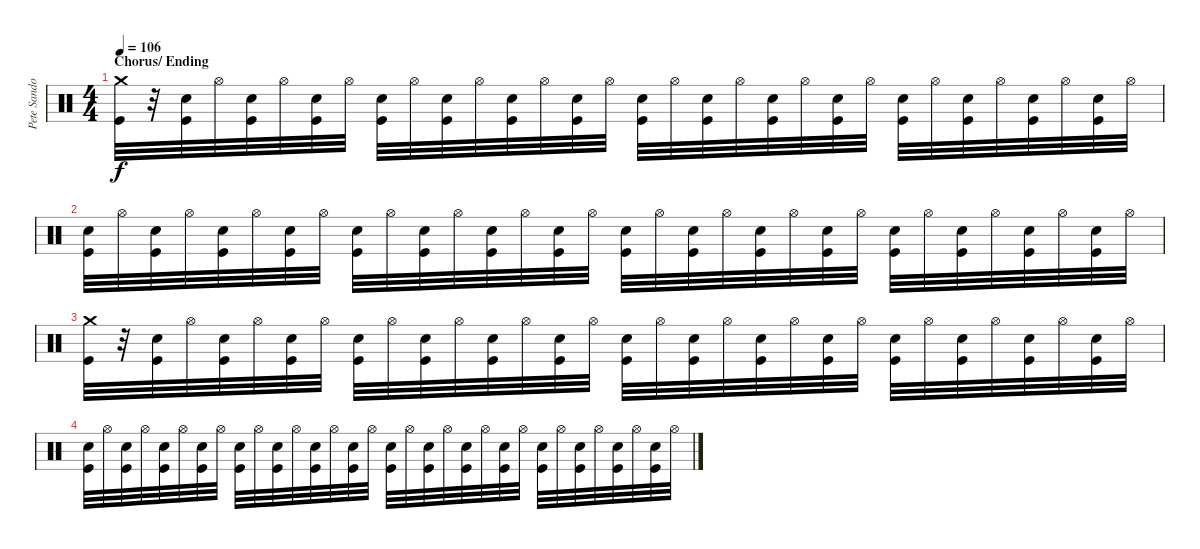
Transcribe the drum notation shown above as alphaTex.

\track ("Pete Sandoval" "Pete Sando") {instrument percussion}
\staff {score}
\articulation defaults
\ts (4 4)
\section ("" "Chorus/ Ending")
\tempo 106
\clef neutral
\ks c
("Crash medium (hit)" "Kick (hit)").32{dy f} r.32 ("Electric Snare (hit)" "Kick (hit)").32 "Hi-Hat (open)".32 ("Electric Snare (hit)" "Kick (hit)").32 "Hi-Hat (open)".32 ("Electric Snare (hit)" "Kick (hit)").32 "Hi-Hat (open)".32 ("Electric Snare (hit)" "Kick (hit)").32 "Hi-Hat (open)".32 ("Electric Snare (hit)" "Kick (hit)").32 "Hi-Hat (open)".32 ("Electric Snare (hit)" "Kick (hit)").32 "Hi-Hat (open)".32 ("Electric Snare (hit)" "Kick (hit)").32 "Hi-Hat (open)".32 ("Electric Snare (hit)" "Kick (hit)").32 "Hi-Hat (open)".32 ("Electric Snare (hit)" "Kick (hit)").32 "Hi-Hat (open)".32 ("Electric Snare (hit)" "Kick (hit)").32 "Hi-Hat (open)".32 ("Electric Snare (hit)" "Kick (hit)").32 "Hi-Hat (open)".32 ("Electric Snare (hit)" "Kick (hit)").32 "Hi-Hat (open)".32 ("Electric Snare (hit)" "Kick (hit)").32 "Hi-Hat (open)".32 ("Electric Snare (hit)" "Kick (hit)").32 "Hi-Hat (open)".32 ("Electric Snare (hit)" "Kick (hit)").32 "Hi-Hat (open)".32 |
("Electric Snare (hit)" "Kick (hit)").32 "Hi-Hat (open)".32 ("Electric Snare (hit)" "Kick (hit)").32 "Hi-Hat (open)".32 ("Electric Snare (hit)" "Kick (hit)").32 "Hi-Hat (open)".32 ("Electric Snare (hit)" "Kick (hit)").32 "Hi-Hat (open)".32 ("Electric Snare (hit)" "Kick (hit)").32 "Hi-Hat (open)".32 ("Electric Snare (hit)" "Kick (hit)").32 "Hi-Hat (open)".32 ("Electric Snare (hit)" "Kick (hit)").32 "Hi-Hat (open)".32 ("Electric Snare (hit)" "Kick (hit)").32 "Hi-Hat (open)".32 ("Electric Snare (hit)" "Kick (hit)").32 "Hi-Hat (open)".32 ("Electric Snare (hit)" "Kick (hit)").32 "Hi-Hat (open)".32 ("Electric Snare (hit)" "Kick (hit)").32 "Hi-Hat (open)".32 ("Electric Snare (hit)" "Kick (hit)").32 "Hi-Hat (open)".32 ("Electric Snare (hit)" "Kick (hit)").32 "Hi-Hat (open)".32 ("Electric Snare (hit)" "Kick (hit)").32 "Hi-Hat (open)".32 ("Electric Snare (hit)" "Kick (hit)").32 "Hi-Hat (open)".32 ("Electric Snare (hit)" "Kick (hit)").32 "Hi-Hat (open)".32 |
("Crash medium (hit)" "Kick (hit)").32 r.32 ("Electric Snare (hit)" "Kick (hit)").32 "Hi-Hat (open)".32 ("Electric Snare (hit)" "Kick (hit)").32 "Hi-Hat (open)".32 ("Electric Snare (hit)" "Kick (hit)").32 "Hi-Hat (open)".32 ("Electric Snare (hit)" "Kick (hit)").32 "Hi-Hat (open)".32 ("Electric Snare (hit)" "Kick (hit)").32 "Hi-Hat (open)".32 ("Electric Snare (hit)" "Kick (hit)").32 "Hi-Hat (open)".32 ("Electric Snare (hit)" "Kick (hit)").32 "Hi-Hat (open)".32 ("Electric Snare (hit)" "Kick (hit)").32 "Hi-Hat (open)".32 ("Electric Snare (hit)" "Kick (hit)").32 "Hi-Hat (open)".32 ("Electric Snare (hit)" "Kick (hit)").32 "Hi-Hat (open)".32 ("Electric Snare (hit)" "Kick (hit)").32 "Hi-Hat (open)".32 ("Electric Snare (hit)" "Kick (hit)").32 "Hi-Hat (open)".32 ("Electric Snare (hit)" "Kick (hit)").32 "Hi-Hat (open)".32 ("Electric Snare (hit)" "Kick (hit)").32 "Hi-Hat (open)".32 ("Electric Snare (hit)" "Kick (hit)").32 "Hi-Hat (open)".32 |
("Electric Snare (hit)" "Kick (hit)").32 "Hi-Hat (open)".32 ("Electric Snare (hit)" "Kick (hit)").32 "Hi-Hat (open)".32 ("Electric Snare (hit)" "Kick (hit)").32 "Hi-Hat (open)".32 ("Electric Snare (hit)" "Kick (hit)").32 "Hi-Hat (open)".32 ("Electric Snare (hit)" "Kick (hit)").32 "Hi-Hat (open)".32 ("Electric Snare (hit)" "Kick (hit)").32 "Hi-Hat (open)".32 ("Electric Snare (hit)" "Kick (hit)").32 "Hi-Hat (open)".32 ("Electric Snare (hit)" "Kick (hit)").32 "Hi-Hat (open)".32 ("Electric Snare (hit)" "Kick (hit)").32 "Hi-Hat (open)".32 ("Electric Snare (hit)" "Kick (hit)").32 "Hi-Hat (open)".32 ("Electric Snare (hit)" "Kick (hit)").32 "Hi-Hat (open)".32 ("Electric Snare (hit)" "Kick (hit)").32 "Hi-Hat (open)".32 ("Electric Snare (hit)" "Kick (hit)").32 "Hi-Hat (open)".32 ("Electric Snare (hit)" "Kick (hit)").32 "Hi-Hat (open)".32 ("Electric Snare (hit)" "Kick (hit)").32 "Hi-Hat (open)".32 ("Electric Snare (hit)" "Kick (hit)").32 "Hi-Hat (open)".32
